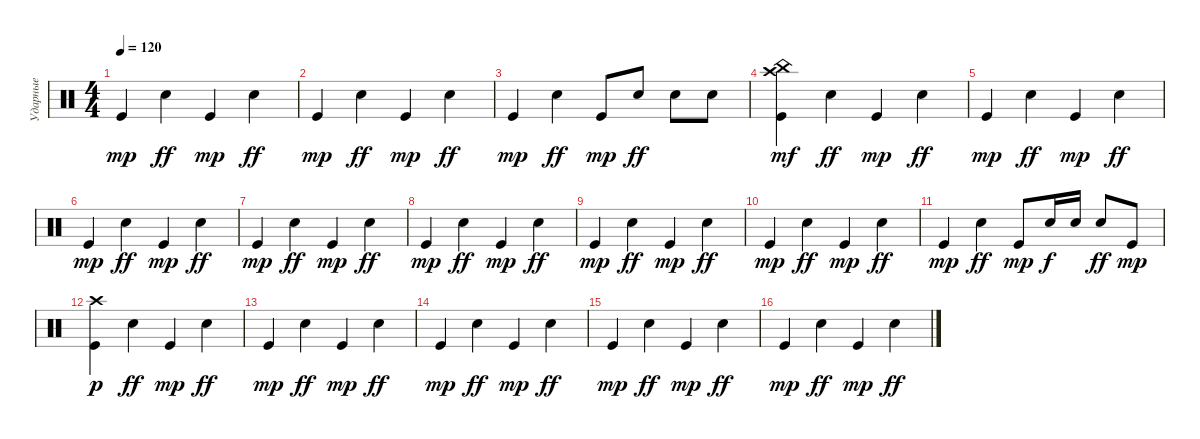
\track ("Ударные" "Ударные") {instrument percussion}
\staff {score}
\articulation defaults
\ts (4 4)
\tempo 120
\clef neutral
\ks c "Kick (hit)".4{dy mp} "Snare (hit) 2".4{dy ff} "Kick (hit)".4{dy mp} "Snare (hit) 2".4{dy ff}
|
"Kick (hit)".4{dy mp} "Snare (hit) 2".4{dy ff} "Kick (hit)".4{dy mp} "Snare (hit) 2".4{dy ff} |
"Kick (hit)".4{dy mp} "Snare (hit) 2".4{dy ff} "Kick (hit)".8{dy mp} "Snare (hit) 2".8{dy ff} "Snare (hit) 2".8 "Snare (hit) 2".8 |
("Kick (hit)" "Crash high (hit)" "China (hit)").4{dy mf} "Snare (hit) 2".4{dy ff} "Kick (hit)".4{dy mp} "Snare (hit) 2".4{dy ff} |
"Kick (hit)".4{dy mp} "Snare (hit) 2".4{dy ff} "Kick (hit)".4{dy mp} "Snare (hit) 2".4{dy ff} |
"Kick (hit)".4{dy mp} "Snare (hit) 2".4{dy ff} "Kick (hit)".4{dy mp} "Snare (hit) 2".4{dy ff} |
"Kick (hit)".4{dy mp} "Snare (hit) 2".4{dy ff} "Kick (hit)".4{dy mp} "Snare (hit) 2".4{dy ff} |
"Kick (hit)".4{dy mp} "Snare (hit) 2".4{dy ff} "Kick (hit)".4{dy mp} "Snare (hit) 2".4{dy ff} |
"Kick (hit)".4{dy mp} "Snare (hit) 2".4{dy ff} "Kick (hit)".4{dy mp} "Snare (hit) 2".4{dy ff} |
"Kick (hit)".4{dy mp} "Snare (hit) 2".4{dy ff} "Kick (hit)".4{dy mp} "Snare (hit) 2".4{dy ff} |
"Kick (hit)".4{dy mp} "Snare (hit) 2".4{dy ff} "Kick (hit)".8{dy mp} "Snare (hit) 2".16{dy f} "Snare (hit) 2".16 "Snare (hit) 2".8{dy ff} "Kick (hit)".8{dy mp} |
("Kick (hit)" "Crash high (hit)").4{dy p} "Snare (hit) 2".4{dy ff} "Kick (hit)".4{dy mp} "Snare (hit) 2".4{dy ff} |
"Kick (hit)".4{dy mp} "Snare (hit) 2".4{dy ff} "Kick (hit)".4{dy mp} "Snare (hit) 2".4{dy ff} |
"Kick (hit)".4{dy mp} "Snare (hit) 2".4{dy ff} "Kick (hit)".4{dy mp} "Snare (hit) 2".4{dy ff} |
"Kick (hit)".4{dy mp} "Snare (hit) 2".4{dy ff} "Kick (hit)".4{dy mp} "Snare (hit) 2".4{dy ff} |
"Kick (hit)".4{dy mp} "Snare (hit) 2".4{dy ff} "Kick (hit)".4{dy mp} "Snare (hit) 2".4{dy ff}
